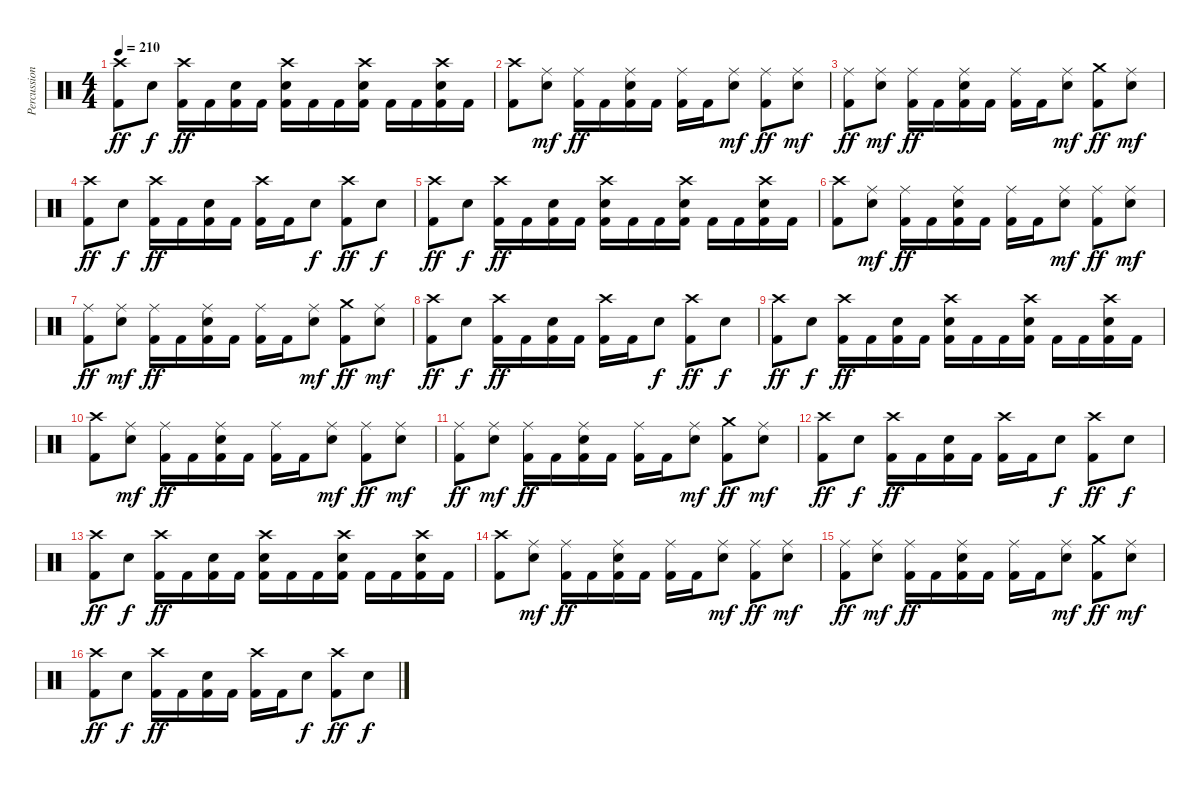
\track ("Percussion" "Percussion") {instrument percussion}
\staff {score}
\articulation defaults
\ts (4 4)
\tempo 210
\clef neutral
\ks c
("Crash high (hit)" "Kick (hit) 2").8{dy ff} "Snare (hit) 2".8{dy f} ("Crash high (hit)" "Kick (hit) 2").16{dy ff} "Kick (hit) 2".16 ("Snare (hit) 2" "Kick (hit) 2").16 "Kick (hit) 2".16 ("Crash high (hit)" "Snare (hit) 2" "Kick (hit) 2").16 "Kick (hit) 2".16 "Kick (hit) 2".16 ("Crash high (hit)" "Snare (hit) 2" "Kick (hit) 2").16 "Kick (hit) 2".16 "Kick (hit) 2".16 ("Crash high (hit)" "Snare (hit) 2" "Kick (hit) 2").16 "Kick (hit) 2".16 |
("Crash high (hit)" "Kick (hit) 2").8 ("Ride (middle)" "Snare (hit) 2").8{dy mf} ("Ride (middle)" "Kick (hit) 2").16{dy ff} "Kick (hit) 2".16 ("Ride (middle)" "Snare (hit) 2" "Kick (hit) 2").16 "Kick (hit) 2".16 ("Ride (middle)" "Kick (hit) 2").16 "Kick (hit) 2".16 ("Ride (middle)" "Snare (hit) 2").8{dy mf} ("Ride (middle)" "Kick (hit) 2").8{dy ff} ("Ride (middle)" "Snare (hit) 2").8{dy mf} |
("Ride (middle)" "Kick (hit) 2").8{dy ff} ("Ride (middle)" "Snare (hit) 2").8{dy mf} ("Ride (middle)" "Kick (hit) 2").16{dy ff} "Kick (hit) 2".16 ("Ride (middle)" "Snare (hit) 2" "Kick (hit) 2").16 "Kick (hit) 2".16 ("Ride (middle)" "Kick (hit) 2").16 "Kick (hit) 2".16 ("Ride (middle)" "Snare (hit) 2").8{dy mf} ("Crash medium (hit)" "Kick (hit) 2").8{dy ff} ("Ride (middle)" "Snare (hit) 2").8{dy mf} |
("Crash high (hit)" "Kick (hit) 2").8{dy ff} "Snare (hit) 2".8{dy f} ("Crash high (hit)" "Kick (hit) 2").16{dy ff} "Kick (hit) 2".16 ("Snare (hit) 2" "Kick (hit) 2").16 "Kick (hit) 2".16 ("Crash high (hit)" "Kick (hit) 2").16 "Kick (hit) 2".16 "Snare (hit) 2".8{dy f} ("Crash high (hit)" "Kick (hit) 2").8{dy ff} "Snare (hit) 2".8{dy f} |
("Crash high (hit)" "Kick (hit) 2").8{dy ff} "Snare (hit) 2".8{dy f} ("Crash high (hit)" "Kick (hit) 2").16{dy ff} "Kick (hit) 2".16 ("Snare (hit) 2" "Kick (hit) 2").16 "Kick (hit) 2".16 ("Crash high (hit)" "Snare (hit) 2" "Kick (hit) 2").16 "Kick (hit) 2".16 "Kick (hit) 2".16 ("Crash high (hit)" "Snare (hit) 2" "Kick (hit) 2").16 "Kick (hit) 2".16 "Kick (hit) 2".16 ("Crash high (hit)" "Snare (hit) 2" "Kick (hit) 2").16 "Kick (hit) 2".16 |
("Crash high (hit)" "Kick (hit) 2").8 ("Ride (middle)" "Snare (hit) 2").8{dy mf} ("Ride (middle)" "Kick (hit) 2").16{dy ff} "Kick (hit) 2".16 ("Ride (middle)" "Snare (hit) 2" "Kick (hit) 2").16 "Kick (hit) 2".16 ("Ride (middle)" "Kick (hit) 2").16 "Kick (hit) 2".16 ("Ride (middle)" "Snare (hit) 2").8{dy mf} ("Ride (middle)" "Kick (hit) 2").8{dy ff} ("Ride (middle)" "Snare (hit) 2").8{dy mf} |
("Ride (middle)" "Kick (hit) 2").8{dy ff} ("Ride (middle)" "Snare (hit) 2").8{dy mf} ("Ride (middle)" "Kick (hit) 2").16{dy ff} "Kick (hit) 2".16 ("Ride (middle)" "Snare (hit) 2" "Kick (hit) 2").16 "Kick (hit) 2".16 ("Ride (middle)" "Kick (hit) 2").16 "Kick (hit) 2".16 ("Ride (middle)" "Snare (hit) 2").8{dy mf} ("Crash medium (hit)" "Kick (hit) 2").8{dy ff} ("Ride (middle)" "Snare (hit) 2").8{dy mf} |
("Crash high (hit)" "Kick (hit) 2").8{dy ff} "Snare (hit) 2".8{dy f} ("Crash high (hit)" "Kick (hit) 2").16{dy ff} "Kick (hit) 2".16 ("Snare (hit) 2" "Kick (hit) 2").16 "Kick (hit) 2".16 ("Crash high (hit)" "Kick (hit) 2").16 "Kick (hit) 2".16 "Snare (hit) 2".8{dy f} ("Crash high (hit)" "Kick (hit) 2").8{dy ff} "Snare (hit) 2".8{dy f} |
("Crash high (hit)" "Kick (hit) 2").8{dy ff} "Snare (hit) 2".8{dy f} ("Crash high (hit)" "Kick (hit) 2").16{dy ff} "Kick (hit) 2".16 ("Snare (hit) 2" "Kick (hit) 2").16 "Kick (hit) 2".16 ("Crash high (hit)" "Snare (hit) 2" "Kick (hit) 2").16 "Kick (hit) 2".16 "Kick (hit) 2".16 ("Crash high (hit)" "Snare (hit) 2" "Kick (hit) 2").16 "Kick (hit) 2".16 "Kick (hit) 2".16 ("Crash high (hit)" "Snare (hit) 2" "Kick (hit) 2").16 "Kick (hit) 2".16 |
("Crash high (hit)" "Kick (hit) 2").8 ("Ride (middle)" "Snare (hit) 2").8{dy mf} ("Ride (middle)" "Kick (hit) 2").16{dy ff} "Kick (hit) 2".16 ("Ride (middle)" "Snare (hit) 2" "Kick (hit) 2").16 "Kick (hit) 2".16 ("Ride (middle)" "Kick (hit) 2").16 "Kick (hit) 2".16 ("Ride (middle)" "Snare (hit) 2").8{dy mf} ("Ride (middle)" "Kick (hit) 2").8{dy ff} ("Ride (middle)" "Snare (hit) 2").8{dy mf} |
("Ride (middle)" "Kick (hit) 2").8{dy ff} ("Ride (middle)" "Snare (hit) 2").8{dy mf} ("Ride (middle)" "Kick (hit) 2").16{dy ff} "Kick (hit) 2".16 ("Ride (middle)" "Snare (hit) 2" "Kick (hit) 2").16 "Kick (hit) 2".16 ("Ride (middle)" "Kick (hit) 2").16 "Kick (hit) 2".16 ("Ride (middle)" "Snare (hit) 2").8{dy mf} ("Crash medium (hit)" "Kick (hit) 2").8{dy ff} ("Ride (middle)" "Snare (hit) 2").8{dy mf} |
("Crash high (hit)" "Kick (hit) 2").8{dy ff} "Snare (hit) 2".8{dy f} ("Crash high (hit)" "Kick (hit) 2").16{dy ff} "Kick (hit) 2".16 ("Snare (hit) 2" "Kick (hit) 2").16 "Kick (hit) 2".16 ("Crash high (hit)" "Kick (hit) 2").16 "Kick (hit) 2".16 "Snare (hit) 2".8{dy f} ("Crash high (hit)" "Kick (hit) 2").8{dy ff} "Snare (hit) 2".8{dy f} |
("Crash high (hit)" "Kick (hit) 2").8{dy ff} "Snare (hit) 2".8{dy f} ("Crash high (hit)" "Kick (hit) 2").16{dy ff} "Kick (hit) 2".16 ("Snare (hit) 2" "Kick (hit) 2").16 "Kick (hit) 2".16 ("Crash high (hit)" "Snare (hit) 2" "Kick (hit) 2").16 "Kick (hit) 2".16 "Kick (hit) 2".16 ("Crash high (hit)" "Snare (hit) 2" "Kick (hit) 2").16 "Kick (hit) 2".16 "Kick (hit) 2".16 ("Crash high (hit)" "Snare (hit) 2" "Kick (hit) 2").16 "Kick (hit) 2".16 |
("Crash high (hit)" "Kick (hit) 2").8 ("Ride (middle)" "Snare (hit) 2").8{dy mf} ("Ride (middle)" "Kick (hit) 2").16{dy ff} "Kick (hit) 2".16 ("Ride (middle)" "Snare (hit) 2" "Kick (hit) 2").16 "Kick (hit) 2".16 ("Ride (middle)" "Kick (hit) 2").16 "Kick (hit) 2".16 ("Ride (middle)" "Snare (hit) 2").8{dy mf} ("Ride (middle)" "Kick (hit) 2").8{dy ff} ("Ride (middle)" "Snare (hit) 2").8{dy mf} |
("Ride (middle)" "Kick (hit) 2").8{dy ff} ("Ride (middle)" "Snare (hit) 2").8{dy mf} ("Ride (middle)" "Kick (hit) 2").16{dy ff} "Kick (hit) 2".16 ("Ride (middle)" "Snare (hit) 2" "Kick (hit) 2").16 "Kick (hit) 2".16 ("Ride (middle)" "Kick (hit) 2").16 "Kick (hit) 2".16 ("Ride (middle)" "Snare (hit) 2").8{dy mf} ("Crash medium (hit)" "Kick (hit) 2").8{dy ff} ("Ride (middle)" "Snare (hit) 2").8{dy mf} |
("Crash high (hit)" "Kick (hit) 2").8{dy ff} "Snare (hit) 2".8{dy f} ("Crash high (hit)" "Kick (hit) 2").16{dy ff} "Kick (hit) 2".16 ("Snare (hit) 2" "Kick (hit) 2").16 "Kick (hit) 2".16 ("Crash high (hit)" "Kick (hit) 2").16 "Kick (hit) 2".16 "Snare (hit) 2".8{dy f} ("Crash high (hit)" "Kick (hit) 2").8{dy ff} "Snare (hit) 2".8{dy f}
